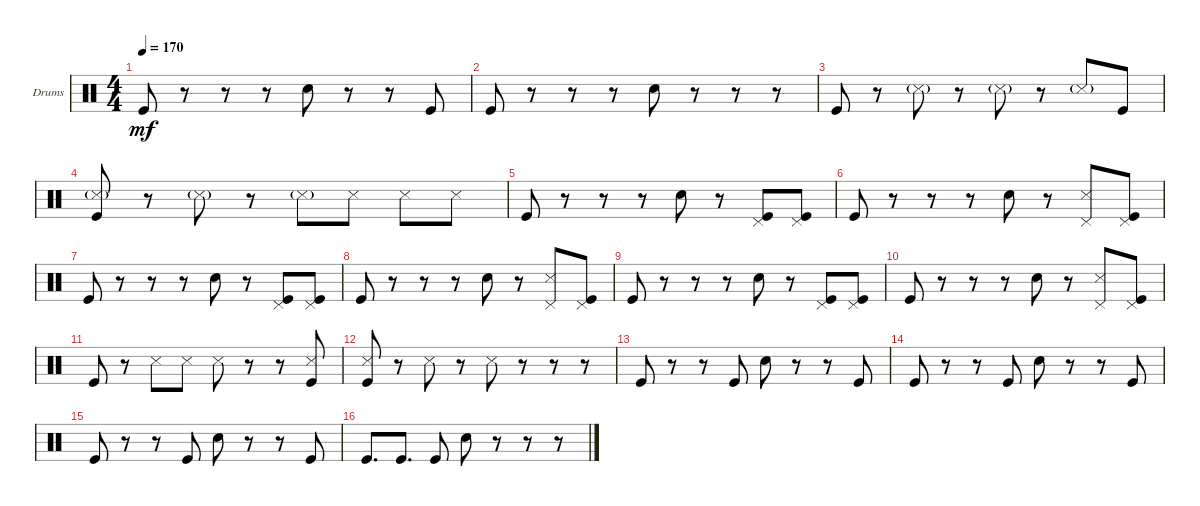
\defaultSystemsLayout 4
\bracketExtendMode groupsimilarinstruments
\firstSystemTrackNameOrientation horizontal
\otherSystemsTrackNameOrientation horizontal
\track ("Drumkit" "Drums") {instrument percussion}
\staff {score}
\articulation defaults
\ts (4 4)
\tempo 170
\clef neutral
\ks c "Kick (hit)".8{dy mf}
r.8 r.8 r.8 "Snare (hit) 2".8 r.8 r.8 "Kick (hit)".8 |
"Kick (hit)".8 r.8 r.8 r.8 "Snare (hit) 2".8 r.8 r.8 r.8 |
"Kick (hit)".8 r.8 "Snare (side stick) 3"{g}.8 r.8 "Snare (side stick) 3"{g}.8 r.8 "Snare (side stick) 3"{g}.8 "Kick (hit)".8 |
("Kick (hit)" "Snare (side stick) 3"{g}).8 r.8 "Snare (side stick) 3"{g}.8 r.8 "Snare (side stick) 3"{g}.8 "Snare (side stick) 3".8 "Snare (side stick) 3".8 "Snare (side stick) 3".8 |
"Kick (hit)".8 r.8 r.8 r.8 "Snare (hit) 2".8 r.8 ("Pedal Hi-Hat (hit)" "Kick (hit)").8 ("Pedal Hi-Hat (hit)" "Kick (hit)").8 |
"Kick (hit)".8 r.8 r.8 r.8 "Snare (hit) 2".8 r.8 ("Pedal Hi-Hat (hit)" "Snare (side stick) 3").8 ("Pedal Hi-Hat (hit)" "Kick (hit)").8 |
"Kick (hit)".8 r.8 r.8 r.8 "Snare (hit) 2".8 r.8 ("Pedal Hi-Hat (hit)" "Kick (hit)").8 ("Pedal Hi-Hat (hit)" "Kick (hit)").8 |
"Kick (hit)".8 r.8 r.8 r.8 "Snare (hit) 2".8 r.8 ("Pedal Hi-Hat (hit)" "Snare (side stick) 3").8 ("Pedal Hi-Hat (hit)" "Kick (hit)").8 |
"Kick (hit)".8 r.8 r.8 r.8 "Snare (hit) 2".8 r.8 ("Pedal Hi-Hat (hit)" "Kick (hit)").8 ("Pedal Hi-Hat (hit)" "Kick (hit)").8 |
"Kick (hit)".8 r.8 r.8 r.8 "Snare (hit) 2".8 r.8 ("Pedal Hi-Hat (hit)" "Snare (side stick) 3").8 ("Pedal Hi-Hat (hit)" "Kick (hit)").8 |
"Kick (hit)".8 r.8 "Snare (side stick) 3".8 "Snare (side stick) 3".8 "Snare (side stick) 3".8 r.8 r.8 ("Kick (hit)" "Snare (side stick) 3").8 |
("Snare (side stick) 3" "Kick (hit)").8 r.8 "Snare (side stick) 3".8 r.8 "Snare (side stick) 3".8 r.8 r.8 r.8 |
"Kick (hit)".8 r.8 r.8 "Kick (hit)".8 "Snare (hit) 2".8 r.8 r.8 "Kick (hit)".8 |
"Kick (hit)".8 r.8 r.8 "Kick (hit)".8 "Snare (hit) 2".8 r.8 r.8 "Kick (hit)".8 |
"Kick (hit)".8 r.8 r.8 "Kick (hit)".8 "Snare (hit) 2".8 r.8 r.8 "Kick (hit)".8 |
"Kick (hit)".8{d} "Kick (hit)".8{d} "Kick (hit)".8 "Snare (hit) 2".8 r.8 r.8 r.8
